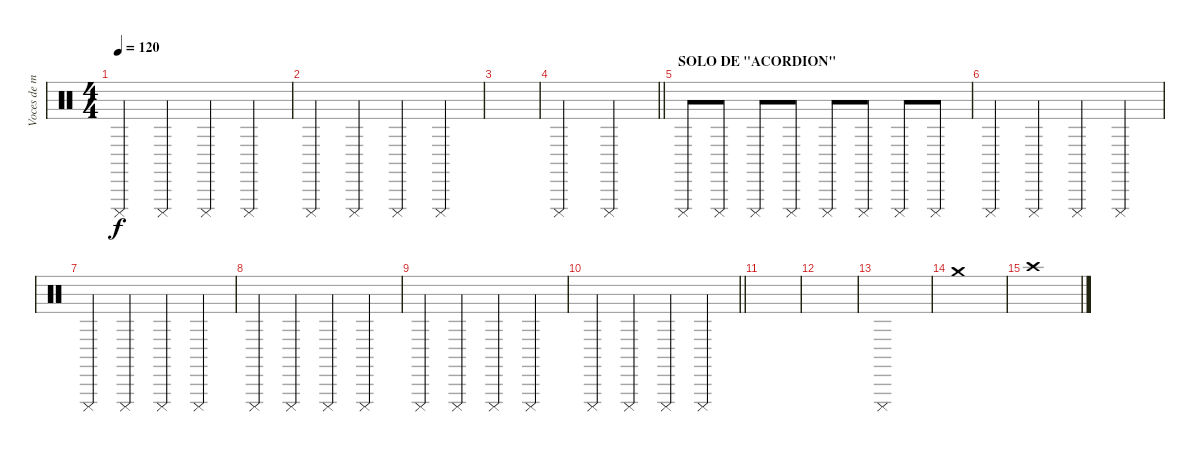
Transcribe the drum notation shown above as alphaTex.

\track ("Voces de marica!!" "Voces de m") {instrument percussion}
\staff {score}
\articulation defaults
\ts (4 4)
\tempo 120
\clef neutral
\ks c "Cuica (mute)".4{dy f} "Cuica (mute)".4 "Cuica (mute)".4 "Cuica (mute)".4
|
"Cuica (mute)".4 "Cuica (mute)".4 "Cuica (mute)".4 "Cuica (mute)".4 |
|
\barLineRight lightlight "Cuica (mute)".2 "Cuica (mute)".2
|
\section ("" "SOLO DE \"ACORDION\"")
"Cuica (mute)".8 "Cuica (mute)".8 "Cuica (mute)".8 "Cuica (mute)".8 "Cuica (mute)".8 "Cuica (mute)".8 "Cuica (mute)".8 "Cuica (mute)".8 |
"Cuica (mute)".4 "Cuica (mute)".4 "Cuica (mute)".4 "Cuica (mute)".4 |
"Cuica (mute)".4 "Cuica (mute)".4 "Cuica (mute)".4 "Cuica (mute)".4 |
"Cuica (mute)".4 "Cuica (mute)".4 "Cuica (mute)".4 "Cuica (mute)".4 |
"Cuica (mute)".4 "Cuica (mute)".4 "Cuica (mute)".4 "Cuica (mute)".4 |
\barLineRight lightlight "Cuica (mute)".4 "Cuica (mute)".4 "Cuica (mute)".4 "Cuica (mute)".4
|
|
|
"Cuica (mute)".1 |
"Crash medium (hit)".1 |
"Crash high (hit)".1
